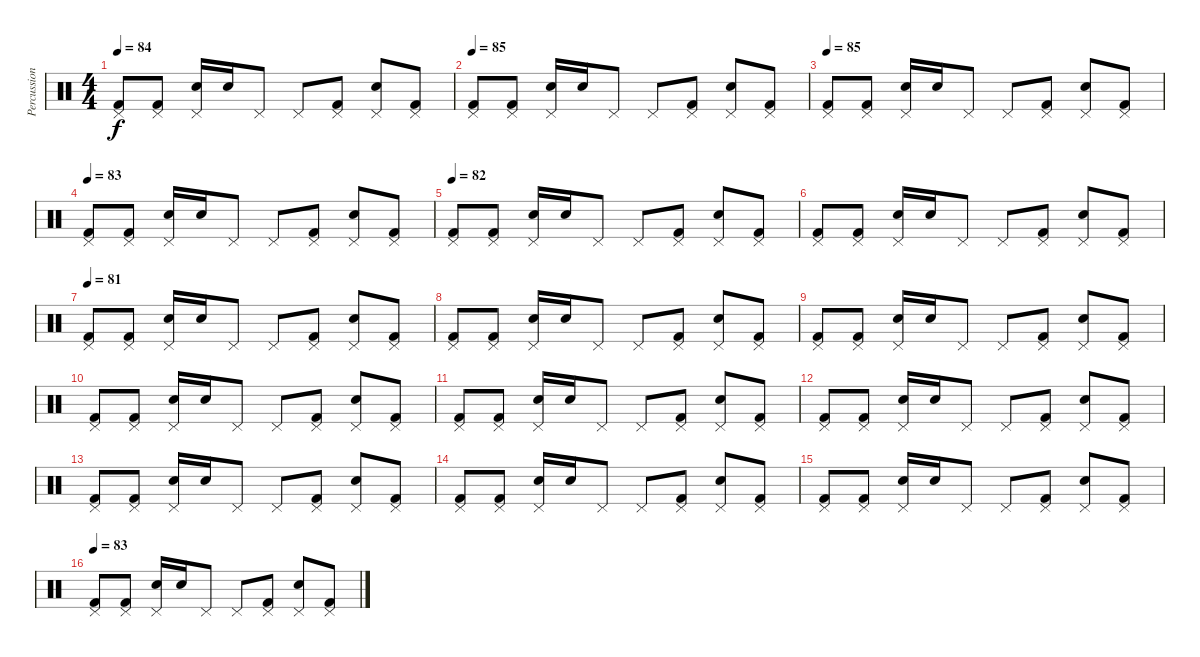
\track ("Percussion" "Percussion") {instrument percussion}
\staff {score}
\articulation defaults
\ts (4 4)
\tempo 84
\clef neutral
\ks c
("Pedal Hi-Hat (hit)" "Kick (hit) 2").8{dy f} ("Pedal Hi-Hat (hit)" "Kick (hit) 2").8 ("Pedal Hi-Hat (hit)" "Snare (hit) 2").16 "Snare (hit) 2".16 "Pedal Hi-Hat (hit)".8 "Pedal Hi-Hat (hit)".8 ("Pedal Hi-Hat (hit)" "Kick (hit) 2").8 ("Pedal Hi-Hat (hit)" "Snare (hit) 2").8 ("Pedal Hi-Hat (hit)" "Kick (hit) 2").8 |
\tempo 85
("Pedal Hi-Hat (hit)" "Kick (hit) 2").8 ("Pedal Hi-Hat (hit)" "Kick (hit) 2").8 ("Pedal Hi-Hat (hit)" "Snare (hit) 2").16 "Snare (hit) 2".16 "Pedal Hi-Hat (hit)".8 "Pedal Hi-Hat (hit)".8 ("Pedal Hi-Hat (hit)" "Kick (hit) 2").8 ("Pedal Hi-Hat (hit)" "Snare (hit) 2").8 ("Pedal Hi-Hat (hit)" "Kick (hit) 2").8 |
\tempo 85
("Pedal Hi-Hat (hit)" "Kick (hit) 2").8 ("Pedal Hi-Hat (hit)" "Kick (hit) 2").8 ("Pedal Hi-Hat (hit)" "Snare (hit) 2").16 "Snare (hit) 2".16 "Pedal Hi-Hat (hit)".8 "Pedal Hi-Hat (hit)".8 ("Pedal Hi-Hat (hit)" "Kick (hit) 2").8 ("Pedal Hi-Hat (hit)" "Snare (hit) 2").8 ("Pedal Hi-Hat (hit)" "Kick (hit) 2").8 |
\tempo 83
("Pedal Hi-Hat (hit)" "Kick (hit) 2").8 ("Pedal Hi-Hat (hit)" "Kick (hit) 2").8 ("Pedal Hi-Hat (hit)" "Snare (hit) 2").16 "Snare (hit) 2".16 "Pedal Hi-Hat (hit)".8 "Pedal Hi-Hat (hit)".8 ("Pedal Hi-Hat (hit)" "Kick (hit) 2").8 ("Pedal Hi-Hat (hit)" "Snare (hit) 2").8 ("Pedal Hi-Hat (hit)" "Kick (hit) 2").8 |
\tempo 82
("Pedal Hi-Hat (hit)" "Kick (hit) 2").8 ("Pedal Hi-Hat (hit)" "Kick (hit) 2").8 ("Pedal Hi-Hat (hit)" "Snare (hit) 2").16 "Snare (hit) 2".16 "Pedal Hi-Hat (hit)".8 "Pedal Hi-Hat (hit)".8 ("Pedal Hi-Hat (hit)" "Kick (hit) 2").8 ("Pedal Hi-Hat (hit)" "Snare (hit) 2").8 ("Pedal Hi-Hat (hit)" "Kick (hit) 2").8 |
("Pedal Hi-Hat (hit)" "Kick (hit) 2").8 ("Pedal Hi-Hat (hit)" "Kick (hit) 2").8 ("Pedal Hi-Hat (hit)" "Snare (hit) 2").16 "Snare (hit) 2".16 "Pedal Hi-Hat (hit)".8 "Pedal Hi-Hat (hit)".8 ("Pedal Hi-Hat (hit)" "Kick (hit) 2").8 ("Pedal Hi-Hat (hit)" "Snare (hit) 2").8 ("Pedal Hi-Hat (hit)" "Kick (hit) 2").8 |
\tempo 81
("Pedal Hi-Hat (hit)" "Kick (hit) 2").8 ("Pedal Hi-Hat (hit)" "Kick (hit) 2").8 ("Pedal Hi-Hat (hit)" "Snare (hit) 2").16 "Snare (hit) 2".16 "Pedal Hi-Hat (hit)".8 "Pedal Hi-Hat (hit)".8 ("Pedal Hi-Hat (hit)" "Kick (hit) 2").8 ("Pedal Hi-Hat (hit)" "Snare (hit) 2").8 ("Pedal Hi-Hat (hit)" "Kick (hit) 2").8 |
("Pedal Hi-Hat (hit)" "Kick (hit) 2").8 ("Pedal Hi-Hat (hit)" "Kick (hit) 2").8 ("Pedal Hi-Hat (hit)" "Snare (hit) 2").16 "Snare (hit) 2".16 "Pedal Hi-Hat (hit)".8 "Pedal Hi-Hat (hit)".8 ("Pedal Hi-Hat (hit)" "Kick (hit) 2").8 ("Pedal Hi-Hat (hit)" "Snare (hit) 2").8 ("Pedal Hi-Hat (hit)" "Kick (hit) 2").8 |
("Pedal Hi-Hat (hit)" "Kick (hit) 2").8 ("Pedal Hi-Hat (hit)" "Kick (hit) 2").8 ("Pedal Hi-Hat (hit)" "Snare (hit) 2").16 "Snare (hit) 2".16 "Pedal Hi-Hat (hit)".8 "Pedal Hi-Hat (hit)".8 ("Pedal Hi-Hat (hit)" "Kick (hit) 2").8 ("Pedal Hi-Hat (hit)" "Snare (hit) 2").8 ("Pedal Hi-Hat (hit)" "Kick (hit) 2").8 |
("Pedal Hi-Hat (hit)" "Kick (hit) 2").8 ("Pedal Hi-Hat (hit)" "Kick (hit) 2").8 ("Pedal Hi-Hat (hit)" "Snare (hit) 2").16 "Snare (hit) 2".16 "Pedal Hi-Hat (hit)".8 "Pedal Hi-Hat (hit)".8 ("Pedal Hi-Hat (hit)" "Kick (hit) 2").8 ("Pedal Hi-Hat (hit)" "Snare (hit) 2").8 ("Pedal Hi-Hat (hit)" "Kick (hit) 2").8 |
("Pedal Hi-Hat (hit)" "Kick (hit) 2").8 ("Pedal Hi-Hat (hit)" "Kick (hit) 2").8 ("Pedal Hi-Hat (hit)" "Snare (hit) 2").16 "Snare (hit) 2".16 "Pedal Hi-Hat (hit)".8 "Pedal Hi-Hat (hit)".8 ("Pedal Hi-Hat (hit)" "Kick (hit) 2").8 ("Pedal Hi-Hat (hit)" "Snare (hit) 2").8 ("Pedal Hi-Hat (hit)" "Kick (hit) 2").8 |
("Pedal Hi-Hat (hit)" "Kick (hit) 2").8 ("Pedal Hi-Hat (hit)" "Kick (hit) 2").8 ("Pedal Hi-Hat (hit)" "Snare (hit) 2").16 "Snare (hit) 2".16 "Pedal Hi-Hat (hit)".8 "Pedal Hi-Hat (hit)".8 ("Pedal Hi-Hat (hit)" "Kick (hit) 2").8 ("Pedal Hi-Hat (hit)" "Snare (hit) 2").8 ("Pedal Hi-Hat (hit)" "Kick (hit) 2").8 |
("Pedal Hi-Hat (hit)" "Kick (hit) 2").8 ("Pedal Hi-Hat (hit)" "Kick (hit) 2").8 ("Pedal Hi-Hat (hit)" "Snare (hit) 2").16 "Snare (hit) 2".16 "Pedal Hi-Hat (hit)".8 "Pedal Hi-Hat (hit)".8 ("Pedal Hi-Hat (hit)" "Kick (hit) 2").8 ("Pedal Hi-Hat (hit)" "Snare (hit) 2").8 ("Pedal Hi-Hat (hit)" "Kick (hit) 2").8 |
("Pedal Hi-Hat (hit)" "Kick (hit) 2").8 ("Pedal Hi-Hat (hit)" "Kick (hit) 2").8 ("Pedal Hi-Hat (hit)" "Snare (hit) 2").16 "Snare (hit) 2".16 "Pedal Hi-Hat (hit)".8 "Pedal Hi-Hat (hit)".8 ("Pedal Hi-Hat (hit)" "Kick (hit) 2").8 ("Pedal Hi-Hat (hit)" "Snare (hit) 2").8 ("Pedal Hi-Hat (hit)" "Kick (hit) 2").8 |
("Pedal Hi-Hat (hit)" "Kick (hit) 2").8 ("Pedal Hi-Hat (hit)" "Kick (hit) 2").8 ("Pedal Hi-Hat (hit)" "Snare (hit) 2").16 "Snare (hit) 2".16 "Pedal Hi-Hat (hit)".8 "Pedal Hi-Hat (hit)".8 ("Pedal Hi-Hat (hit)" "Kick (hit) 2").8 ("Pedal Hi-Hat (hit)" "Snare (hit) 2").8 ("Pedal Hi-Hat (hit)" "Kick (hit) 2").8 |
\tempo 83
("Pedal Hi-Hat (hit)" "Kick (hit) 2").8 ("Pedal Hi-Hat (hit)" "Kick (hit) 2").8 ("Pedal Hi-Hat (hit)" "Snare (hit) 2").16 "Snare (hit) 2".16 "Pedal Hi-Hat (hit)".8 "Pedal Hi-Hat (hit)".8 ("Pedal Hi-Hat (hit)" "Kick (hit) 2").8 ("Pedal Hi-Hat (hit)" "Snare (hit) 2").8 ("Pedal Hi-Hat (hit)" "Kick (hit) 2").8
